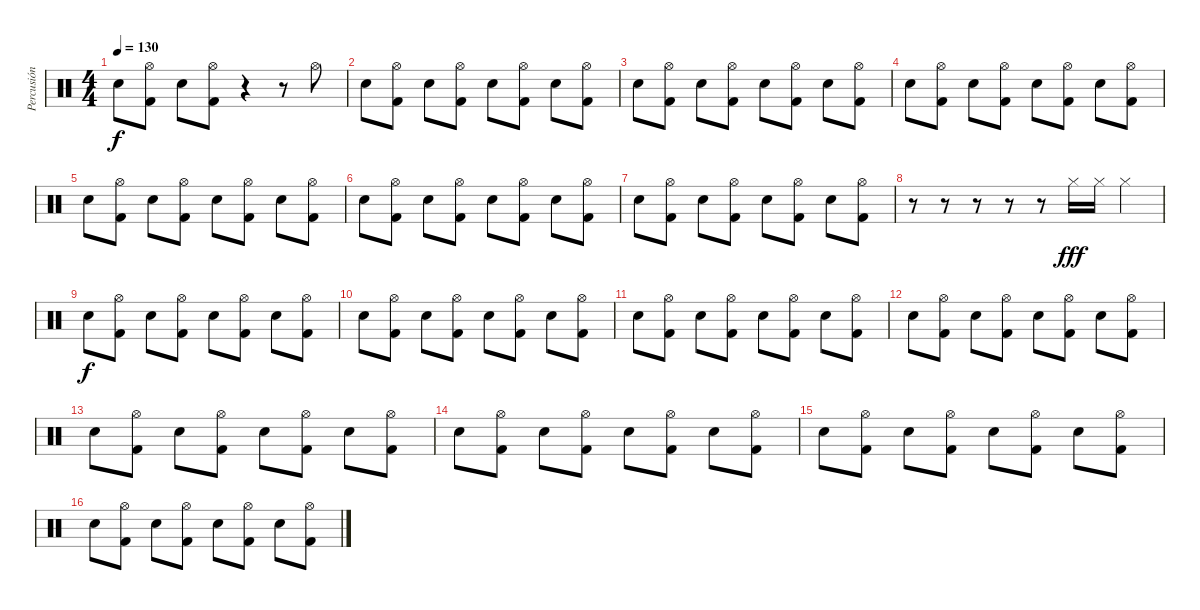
\track ("Percusión" "Percusión") {instrument percussion}
\staff {score}
\articulation defaults
\ts (4 4)
\tempo 130
\clef neutral
\ks c "Snare (hit) 2".8{dy f}
("Hi-Hat (open)" "Kick (hit) 2").8 "Snare (hit) 2".8 ("Hi-Hat (open)" "Kick (hit) 2").8 r.4 r.8 "Hi-Hat (open)".8 |
"Snare (hit) 2".8 ("Hi-Hat (open)" "Kick (hit) 2").8 "Snare (hit) 2".8 ("Hi-Hat (open)" "Kick (hit) 2").8 "Snare (hit) 2".8 ("Hi-Hat (open)" "Kick (hit) 2").8 "Snare (hit) 2".8 ("Hi-Hat (open)" "Kick (hit) 2").8 |
"Snare (hit) 2".8 ("Hi-Hat (open)" "Kick (hit) 2").8 "Snare (hit) 2".8 ("Hi-Hat (open)" "Kick (hit) 2").8 "Snare (hit) 2".8 ("Hi-Hat (open)" "Kick (hit) 2").8 "Snare (hit) 2".8 ("Hi-Hat (open)" "Kick (hit) 2").8 |
"Snare (hit) 2".8 ("Hi-Hat (open)" "Kick (hit) 2").8 "Snare (hit) 2".8 ("Hi-Hat (open)" "Kick (hit) 2").8 "Snare (hit) 2".8 ("Hi-Hat (open)" "Kick (hit) 2").8 "Snare (hit) 2".8 ("Hi-Hat (open)" "Kick (hit) 2").8 |
"Snare (hit) 2".8 ("Hi-Hat (open)" "Kick (hit) 2").8 "Snare (hit) 2".8 ("Hi-Hat (open)" "Kick (hit) 2").8 "Snare (hit) 2".8 ("Hi-Hat (open)" "Kick (hit) 2").8 "Snare (hit) 2".8 ("Hi-Hat (open)" "Kick (hit) 2").8 |
"Snare (hit) 2".8 ("Hi-Hat (open)" "Kick (hit) 2").8 "Snare (hit) 2".8 ("Hi-Hat (open)" "Kick (hit) 2").8 "Snare (hit) 2".8 ("Hi-Hat (open)" "Kick (hit) 2").8 "Snare (hit) 2".8 ("Hi-Hat (open)" "Kick (hit) 2").8 |
"Snare (hit) 2".8 ("Hi-Hat (open)" "Kick (hit) 2").8 "Snare (hit) 2".8 ("Hi-Hat (open)" "Kick (hit) 2").8 "Snare (hit) 2".8 ("Hi-Hat (open)" "Kick (hit) 2").8 "Snare (hit) 2".8 ("Hi-Hat (open)" "Kick (hit) 2").8 |
r.8 r.8 r.8 r.8 r.8 "Hi-Hat (closed)".16{dy fff} "Hi-Hat (closed)".16 "Hi-Hat (closed)".4 |
"Snare (hit) 2".8{dy f} ("Hi-Hat (open)" "Kick (hit) 2").8 "Snare (hit) 2".8 ("Hi-Hat (open)" "Kick (hit) 2").8 "Snare (hit) 2".8 ("Hi-Hat (open)" "Kick (hit) 2").8 "Snare (hit) 2".8 ("Hi-Hat (open)" "Kick (hit) 2").8 |
"Snare (hit) 2".8 ("Hi-Hat (open)" "Kick (hit) 2").8 "Snare (hit) 2".8 ("Hi-Hat (open)" "Kick (hit) 2").8 "Snare (hit) 2".8 ("Hi-Hat (open)" "Kick (hit) 2").8 "Snare (hit) 2".8 ("Hi-Hat (open)" "Kick (hit) 2").8 |
"Snare (hit) 2".8 ("Hi-Hat (open)" "Kick (hit) 2").8 "Snare (hit) 2".8 ("Hi-Hat (open)" "Kick (hit) 2").8 "Snare (hit) 2".8 ("Hi-Hat (open)" "Kick (hit) 2").8 "Snare (hit) 2".8 ("Hi-Hat (open)" "Kick (hit) 2").8 |
"Snare (hit) 2".8 ("Hi-Hat (open)" "Kick (hit) 2").8 "Snare (hit) 2".8 ("Hi-Hat (open)" "Kick (hit) 2").8 "Snare (hit) 2".8 ("Hi-Hat (open)" "Kick (hit) 2").8 "Snare (hit) 2".8 ("Hi-Hat (open)" "Kick (hit) 2").8 |
"Snare (hit) 2".8 ("Hi-Hat (open)" "Kick (hit) 2").8 "Snare (hit) 2".8 ("Hi-Hat (open)" "Kick (hit) 2").8 "Snare (hit) 2".8 ("Hi-Hat (open)" "Kick (hit) 2").8 "Snare (hit) 2".8 ("Hi-Hat (open)" "Kick (hit) 2").8 |
"Snare (hit) 2".8 ("Hi-Hat (open)" "Kick (hit) 2").8 "Snare (hit) 2".8 ("Hi-Hat (open)" "Kick (hit) 2").8 "Snare (hit) 2".8 ("Hi-Hat (open)" "Kick (hit) 2").8 "Snare (hit) 2".8 ("Hi-Hat (open)" "Kick (hit) 2").8 |
"Snare (hit) 2".8 ("Hi-Hat (open)" "Kick (hit) 2").8 "Snare (hit) 2".8 ("Hi-Hat (open)" "Kick (hit) 2").8 "Snare (hit) 2".8 ("Hi-Hat (open)" "Kick (hit) 2").8 "Snare (hit) 2".8 ("Hi-Hat (open)" "Kick (hit) 2").8 |
"Snare (hit) 2".8 ("Hi-Hat (open)" "Kick (hit) 2").8 "Snare (hit) 2".8 ("Hi-Hat (open)" "Kick (hit) 2").8 "Snare (hit) 2".8 ("Hi-Hat (open)" "Kick (hit) 2").8 "Snare (hit) 2".8 ("Hi-Hat (open)" "Kick (hit) 2").8
